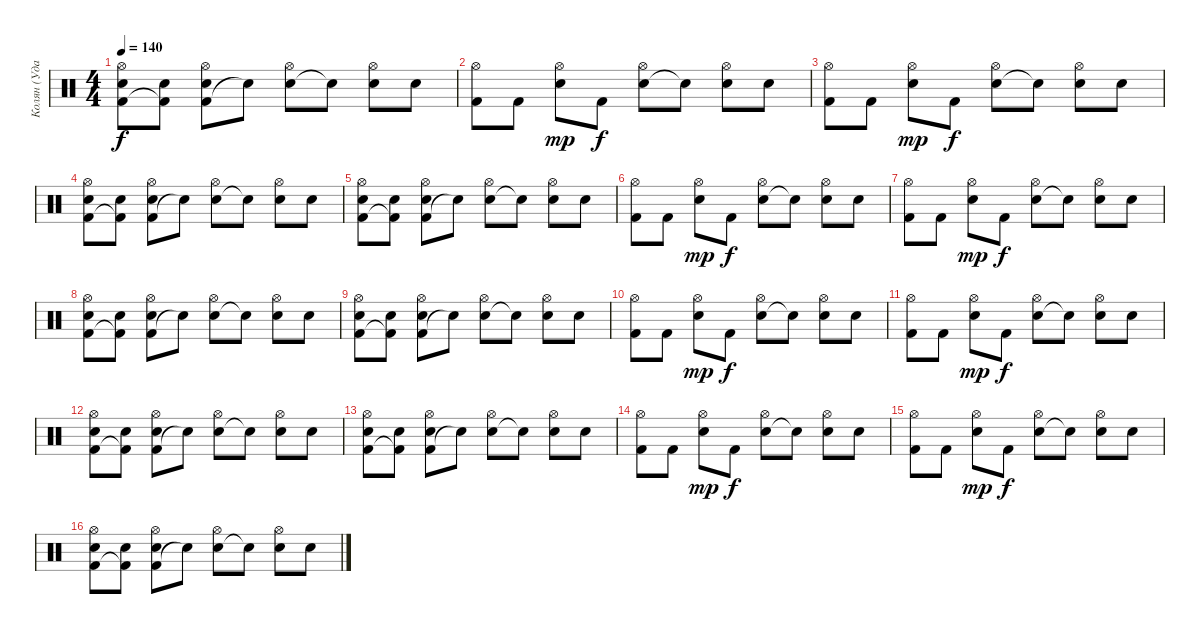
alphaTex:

\track ("Колян (Ударные)" "Колян (Уда") {instrument percussion}
\staff
\articulation defaults
\ts (4 4)
\tempo 140
\clef neutral
\ks c
("Kick (hit) 2" "Snare (hit) 2" "Hi-Hat (open)").8{dy f} ("Kick (hit) 2"{t} "Snare (hit) 2").8 ("Kick (hit) 2" "Snare (hit) 2" "Hi-Hat (open)").8 "Snare (hit)"{t}.8 ("Snare (hit) 2" "Hi-Hat (open)").8 "Snare (hit)"{t}.8 ("Snare (hit) 2" "Hi-Hat (open)").8 "Snare (hit) 2".8 |
("Kick (hit) 2" "Hi-Hat (open)").8 "Kick (hit) 2".8 ("Snare (hit) 2" "Hi-Hat (open)").8{dy mp} "Kick (hit) 2".8{dy f} ("Snare (hit) 2" "Hi-Hat (open)").8 "Snare (hit)"{t}.8 ("Snare (hit) 2" "Hi-Hat (open)").8 "Snare (hit) 2".8 |
("Kick (hit) 2" "Hi-Hat (open)").8 "Kick (hit) 2".8 ("Snare (hit) 2" "Hi-Hat (open)").8{dy mp} "Kick (hit) 2".8{dy f} ("Snare (hit) 2" "Hi-Hat (open)").8 "Snare (hit)"{t}.8 ("Snare (hit) 2" "Hi-Hat (open)").8 "Snare (hit) 2".8 |
("Kick (hit) 2" "Snare (hit) 2" "Hi-Hat (open)").8 ("Kick (hit) 2"{t} "Snare (hit) 2").8 ("Kick (hit) 2" "Snare (hit) 2" "Hi-Hat (open)").8 "Snare (hit)"{t}.8 ("Snare (hit) 2" "Hi-Hat (open)").8 "Snare (hit)"{t}.8 ("Snare (hit) 2" "Hi-Hat (open)").8 "Snare (hit) 2".8 |
("Kick (hit) 2" "Snare (hit) 2" "Hi-Hat (open)").8 ("Kick (hit) 2"{t} "Snare (hit) 2").8 ("Kick (hit) 2" "Snare (hit) 2" "Hi-Hat (open)").8 "Snare (hit)"{t}.8 ("Snare (hit) 2" "Hi-Hat (open)").8 "Snare (hit)"{t}.8 ("Snare (hit) 2" "Hi-Hat (open)").8 "Snare (hit) 2".8 |
("Kick (hit) 2" "Hi-Hat (open)").8 "Kick (hit) 2".8 ("Snare (hit) 2" "Hi-Hat (open)").8{dy mp} "Kick (hit) 2".8{dy f} ("Snare (hit) 2" "Hi-Hat (open)").8 "Snare (hit)"{t}.8 ("Snare (hit) 2" "Hi-Hat (open)").8 "Snare (hit) 2".8 |
("Kick (hit) 2" "Hi-Hat (open)").8 "Kick (hit) 2".8 ("Snare (hit) 2" "Hi-Hat (open)").8{dy mp} "Kick (hit) 2".8{dy f} ("Snare (hit) 2" "Hi-Hat (open)").8 "Snare (hit)"{t}.8 ("Snare (hit) 2" "Hi-Hat (open)").8 "Snare (hit) 2".8 |
("Kick (hit) 2" "Snare (hit) 2" "Hi-Hat (open)").8 ("Kick (hit) 2"{t} "Snare (hit) 2").8 ("Kick (hit) 2" "Snare (hit) 2" "Hi-Hat (open)").8 "Snare (hit)"{t}.8 ("Snare (hit) 2" "Hi-Hat (open)").8 "Snare (hit)"{t}.8 ("Snare (hit) 2" "Hi-Hat (open)").8 "Snare (hit) 2".8 |
("Kick (hit) 2" "Snare (hit) 2" "Hi-Hat (open)").8 ("Kick (hit) 2"{t} "Snare (hit) 2").8 ("Kick (hit) 2" "Snare (hit) 2" "Hi-Hat (open)").8 "Snare (hit)"{t}.8 ("Snare (hit) 2" "Hi-Hat (open)").8 "Snare (hit)"{t}.8 ("Snare (hit) 2" "Hi-Hat (open)").8 "Snare (hit) 2".8 |
("Kick (hit) 2" "Hi-Hat (open)").8 "Kick (hit) 2".8 ("Snare (hit) 2" "Hi-Hat (open)").8{dy mp} "Kick (hit) 2".8{dy f} ("Snare (hit) 2" "Hi-Hat (open)").8 "Snare (hit)"{t}.8 ("Snare (hit) 2" "Hi-Hat (open)").8 "Snare (hit) 2".8 |
("Kick (hit) 2" "Hi-Hat (open)").8 "Kick (hit) 2".8 ("Snare (hit) 2" "Hi-Hat (open)").8{dy mp} "Kick (hit) 2".8{dy f} ("Snare (hit) 2" "Hi-Hat (open)").8 "Snare (hit)"{t}.8 ("Snare (hit) 2" "Hi-Hat (open)").8 "Snare (hit) 2".8 |
("Kick (hit) 2" "Snare (hit) 2" "Hi-Hat (open)").8 ("Kick (hit) 2"{t} "Snare (hit) 2").8 ("Kick (hit) 2" "Snare (hit) 2" "Hi-Hat (open)").8 "Snare (hit)"{t}.8 ("Snare (hit) 2" "Hi-Hat (open)").8 "Snare (hit)"{t}.8 ("Snare (hit) 2" "Hi-Hat (open)").8 "Snare (hit) 2".8 |
("Kick (hit) 2" "Snare (hit) 2" "Hi-Hat (open)").8 ("Kick (hit) 2"{t} "Snare (hit) 2").8 ("Kick (hit) 2" "Snare (hit) 2" "Hi-Hat (open)").8 "Snare (hit)"{t}.8 ("Snare (hit) 2" "Hi-Hat (open)").8 "Snare (hit)"{t}.8 ("Snare (hit) 2" "Hi-Hat (open)").8 "Snare (hit) 2".8 |
("Kick (hit) 2" "Hi-Hat (open)").8 "Kick (hit) 2".8 ("Snare (hit) 2" "Hi-Hat (open)").8{dy mp} "Kick (hit) 2".8{dy f} ("Snare (hit) 2" "Hi-Hat (open)").8 "Snare (hit)"{t}.8 ("Snare (hit) 2" "Hi-Hat (open)").8 "Snare (hit) 2".8 |
("Kick (hit) 2" "Hi-Hat (open)").8 "Kick (hit) 2".8 ("Snare (hit) 2" "Hi-Hat (open)").8{dy mp} "Kick (hit) 2".8{dy f} ("Snare (hit) 2" "Hi-Hat (open)").8 "Snare (hit)"{t}.8 ("Snare (hit) 2" "Hi-Hat (open)").8 "Snare (hit) 2".8 |
("Kick (hit) 2" "Snare (hit) 2" "Hi-Hat (open)").8 ("Kick (hit) 2"{t} "Snare (hit) 2").8 ("Kick (hit) 2" "Snare (hit) 2" "Hi-Hat (open)").8 "Snare (hit)"{t}.8 ("Snare (hit) 2" "Hi-Hat (open)").8 "Snare (hit)"{t}.8 ("Snare (hit) 2" "Hi-Hat (open)").8 "Snare (hit) 2".8
